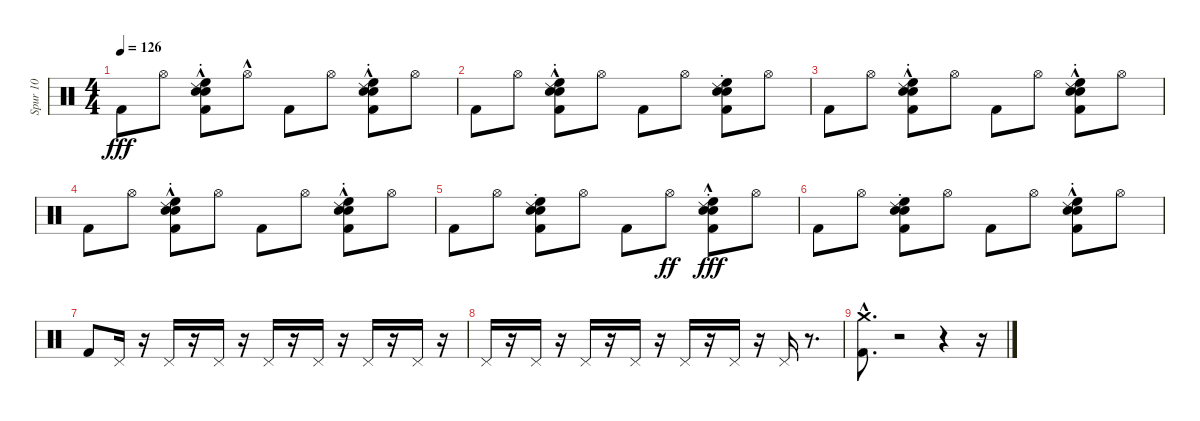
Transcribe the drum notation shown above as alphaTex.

\track ("Spur 10" "Spur 10") {instrument percussion}
\staff {score}
\articulation defaults
\ts (4 4)
\tempo 126
\clef neutral
\ks c "Kick (hit) 2".8{dy fff} "Hi-Hat (open)".8
("Ride (choke) 2"{hac} "Kick (hit) 2" "High Floor Tom (hit)"{hac} "Electric Snare (hit)" "Snare (hit) 2").8 "Hi-Hat (open)"{hac}.8 "Kick (hit) 2".8 "Hi-Hat (open)".8 ("High Floor Tom (hit)"{hac} "Ride (choke) 2" "Electric Snare (hit)" "Kick (hit) 2" "Snare (hit) 2").8 "Hi-Hat (open)".8 |
"Kick (hit) 2".8 "Hi-Hat (open)".8 ("High Floor Tom (hit)"{hac} "Electric Snare (hit)" "Ride (choke) 2"{hac} "Kick (hit) 2" "Snare (hit) 2").8 "Hi-Hat (open)".8 "Kick (hit) 2".8 "Hi-Hat (open)".8 ("Ride (choke) 2" "Electric Snare (hit)" "High Floor Tom (hit)" "Snare (hit) 2" "Kick (hit) 2").8 "Hi-Hat (open)".8 |
"Kick (hit) 2".8 "Hi-Hat (open)".8 ("Electric Snare (hit)" "Kick (hit) 2" "Ride (choke) 2"{hac} "High Floor Tom (hit)"{hac} "Snare (hit) 2").8 "Hi-Hat (open)".8 "Kick (hit) 2".8 "Hi-Hat (open)".8 ("Ride (choke) 2"{hac} "Kick (hit) 2" "Electric Snare (hit)" "High Floor Tom (hit)"{hac} "Snare (hit) 2").8 "Hi-Hat (open)".8 |
"Kick (hit) 2".8 "Hi-Hat (open)".8 ("Ride (choke) 2"{hac} "Kick (hit) 2" "Electric Snare (hit)" "High Floor Tom (hit)"{hac} "Snare (hit) 2").8 "Hi-Hat (open)".8 "Kick (hit) 2".8 "Hi-Hat (open)".8 ("Kick (hit) 2" "Electric Snare (hit)" "High Floor Tom (hit)"{hac} "Ride (choke) 2"{hac} "Snare (hit) 2").8 "Hi-Hat (open)".8 |
"Kick (hit) 2".8 "Hi-Hat (open)".8 ("Electric Snare (hit)" "High Floor Tom (hit)" "Ride (choke) 2" "Kick (hit) 2" "Snare (hit) 2").8 "Hi-Hat (open)".8 "Kick (hit) 2".8 "Hi-Hat (open)".8{dy ff} ("Electric Snare (hit)" "Ride (choke) 2" "Kick (hit) 2" "High Floor Tom (hit)"{hac} "Snare (hit) 2").8{dy fff} "Hi-Hat (open)".8 |
"Kick (hit) 2".8 "Hi-Hat (open)".8 ("Kick (hit) 2" "Ride (choke) 2" "High Floor Tom (hit)" "Electric Snare (hit)" "Snare (hit) 2").8 "Hi-Hat (open)".8 "Kick (hit) 2".8 "Hi-Hat (open)".8 ("High Floor Tom (hit)"{hac} "Electric Snare (hit)" "Ride (choke) 2"{hac} "Kick (hit) 2" "Snare (hit) 2").8 "Hi-Hat (open)".8 |
"Kick (hit) 2".8 "Pedal Hi-Hat (hit)".16 r.16 "Pedal Hi-Hat (hit)".16 r.16 "Pedal Hi-Hat (hit)".16 r.16 "Pedal Hi-Hat (hit)".16 r.16 "Pedal Hi-Hat (hit)".16 r.16 "Pedal Hi-Hat (hit)".16 r.16 "Pedal Hi-Hat (hit)".16 r.16 |
"Pedal Hi-Hat (hit)".16 r.16 "Pedal Hi-Hat (hit)".16 r.16 "Pedal Hi-Hat (hit)".16 r.16 "Pedal Hi-Hat (hit)".16 r.16 "Pedal Hi-Hat (hit)".16 r.16 "Pedal Hi-Hat (hit)".16 r.16 "Pedal Hi-Hat (hit)".16 r.8{d} |
("Crash medium (hit)"{hac} "Kick (hit) 2"{hac}).8{d} r.2 r.4 r.16
